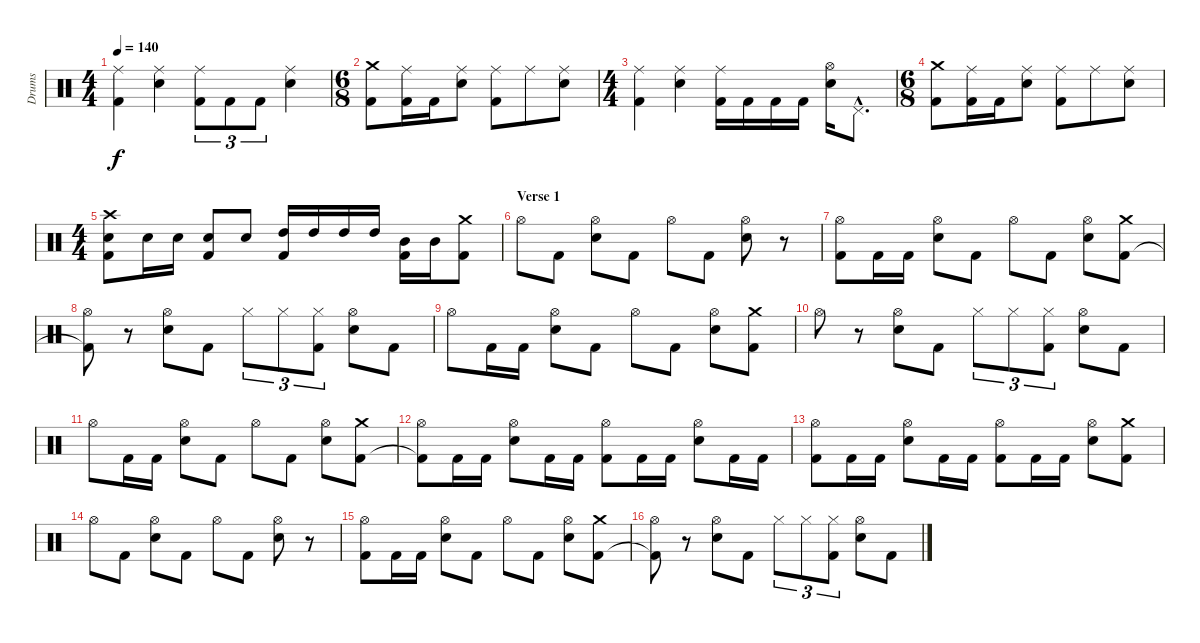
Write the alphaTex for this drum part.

\track ("Drums" "Drums") {instrument percussion}
\staff {score}
\articulation defaults
\ts (4 4)
\tempo 140
\clef neutral
\ks c
("Ride (middle)" "Kick (hit) 2").4{dy f} ("Ride (middle)" "Snare (hit) 2").4 ("Ride (middle)" "Kick (hit) 2").8{tu (3 2)} "Kick (hit) 2".8{tu (3 2)} "Kick (hit) 2".8{tu (3 2)} ("Ride (middle)" "Snare (hit) 2").4 |
\ts (6 8)
("Crash medium (hit)" "Kick (hit) 2").8 ("Ride (middle)" "Kick (hit) 2").16 "Kick (hit) 2".16 ("Ride (middle)" "Snare (hit) 2").8 ("Ride (middle)" "Kick (hit) 2").8 "Ride (middle)".8 ("Ride (middle)" "Snare (hit) 2").8 |
\ts (4 4)
("Ride (middle)" "Kick (hit) 2").4 ("Ride (middle)" "Snare (hit) 2").4 ("Ride (middle)" "Kick (hit) 2").16 "Kick (hit) 2".16 "Kick (hit) 2".16 "Kick (hit) 2".16 ("Hi-Hat (open)" "Snare (hit) 2").16 "Pedal Hi-Hat (hit)"{hac}.8{d} |
\ts (6 8)
("Crash medium (hit)" "Kick (hit) 2").8 ("Ride (middle)" "Kick (hit) 2").16 "Kick (hit) 2".16 ("Ride (middle)" "Snare (hit) 2").8 ("Ride (middle)" "Kick (hit) 2").8 "Ride (middle)".8 ("Ride (middle)" "Snare (hit) 2").8 |
\ts (4 4)
("Crash high (hit)" "Snare (hit) 2" "Kick (hit) 2").8 "Snare (hit) 2".16 "Snare (hit) 2".16 ("Snare (hit) 2" "Kick (hit) 2").8 "Snare (hit) 2".8 ("High Tom (hit)" "Kick (hit) 2").16 "High Tom (hit)".16 "High Tom (hit)".16 "High Tom (hit)".16 ("Mid Tom (hit)" "Kick (hit) 2").16 "Mid Tom (hit)".16 ("Crash medium (hit)" "Kick (hit) 2").8 |
\section ("" "Verse 1")
"Hi-Hat (open)".8 "Kick (hit) 2".8 ("Hi-Hat (open)" "Snare (hit) 2").8 "Kick (hit) 2".8 "Hi-Hat (open)".8 "Kick (hit) 2".8 ("Hi-Hat (open)" "Snare (hit) 2").8 r.8 |
("Hi-Hat (open)" "Kick (hit) 2").8 "Kick (hit) 2".16 "Kick (hit) 2".16 ("Hi-Hat (open)" "Snare (hit) 2").8 "Kick (hit) 2".8 "Hi-Hat (open)".8 "Kick (hit) 2".8 ("Hi-Hat (open)" "Snare (hit) 2").8 ("Crash medium (hit)" "Kick (hit) 2").8 |
("Hi-Hat (open)" "Kick (hit) 2"{t}).8 r.8 ("Hi-Hat (open)" "Snare (hit) 2").8 "Kick (hit) 2".8 "Hi-Hat (closed)".8{tu (3 2)} "Hi-Hat (closed)".8{tu (3 2)} ("Hi-Hat (closed)" "Kick (hit) 2").8{tu (3 2)} ("Hi-Hat (open)" "Snare (hit) 2").8 "Kick (hit) 2".8 |
"Hi-Hat (open)".8 "Kick (hit) 2".16 "Kick (hit) 2".16 ("Hi-Hat (open)" "Snare (hit) 2").8 "Kick (hit) 2".8 "Hi-Hat (open)".8 "Kick (hit) 2".8 ("Hi-Hat (open)" "Snare (hit) 2").8 ("Crash medium (hit)" "Kick (hit) 2").8 |
"Hi-Hat (open)".8 r.8 ("Hi-Hat (open)" "Snare (hit) 2").8 "Kick (hit) 2".8 "Hi-Hat (closed)".8{tu (3 2)} "Hi-Hat (closed)".8{tu (3 2)} ("Hi-Hat (closed)" "Kick (hit) 2").8{tu (3 2)} ("Hi-Hat (open)" "Snare (hit) 2").8 "Kick (hit) 2".8 |
"Hi-Hat (open)".8 "Kick (hit) 2".16 "Kick (hit) 2".16 ("Hi-Hat (open)" "Snare (hit) 2").8 "Kick (hit) 2".8 "Hi-Hat (open)".8 "Kick (hit) 2".8 ("Hi-Hat (open)" "Snare (hit) 2").8 ("Crash medium (hit)" "Kick (hit) 2").8 |
("Hi-Hat (open)" "Kick (hit) 2"{t}).8 "Kick (hit) 2".16 "Kick (hit) 2".16 ("Hi-Hat (open)" "Snare (hit) 2").8 "Kick (hit) 2".16 "Kick (hit) 2".16 ("Hi-Hat (open)" "Kick (hit) 2").8 "Kick (hit) 2".16 "Kick (hit) 2".16 ("Hi-Hat (open)" "Snare (hit) 2").8 "Kick (hit) 2".16 "Kick (hit) 2".16 |
("Hi-Hat (open)" "Kick (hit) 2").8 "Kick (hit) 2".16 "Kick (hit) 2".16 ("Hi-Hat (open)" "Snare (hit) 2").8 "Kick (hit) 2".16 "Kick (hit) 2".16 ("Hi-Hat (open)" "Kick (hit) 2").8 "Kick (hit) 2".16 "Kick (hit) 2".16 ("Hi-Hat (open)" "Snare (hit) 2").8 ("Crash medium (hit)" "Kick (hit) 2").8 |
"Hi-Hat (open)".8 "Kick (hit) 2".8 ("Hi-Hat (open)" "Snare (hit) 2").8 "Kick (hit) 2".8 "Hi-Hat (open)".8 "Kick (hit) 2".8 ("Hi-Hat (open)" "Snare (hit) 2").8 r.8 |
("Hi-Hat (open)" "Kick (hit) 2").8 "Kick (hit) 2".16 "Kick (hit) 2".16 ("Hi-Hat (open)" "Snare (hit) 2").8 "Kick (hit) 2".8 "Hi-Hat (open)".8 "Kick (hit) 2".8 ("Hi-Hat (open)" "Snare (hit) 2").8 ("Crash medium (hit)" "Kick (hit) 2").8 |
("Hi-Hat (open)" "Kick (hit) 2"{t}).8 r.8 ("Hi-Hat (open)" "Snare (hit) 2").8 "Kick (hit) 2".8 "Hi-Hat (closed)".8{tu (3 2)} "Hi-Hat (closed)".8{tu (3 2)} ("Hi-Hat (closed)" "Kick (hit) 2").8{tu (3 2)} ("Hi-Hat (open)" "Snare (hit) 2").8 "Kick (hit) 2".8
